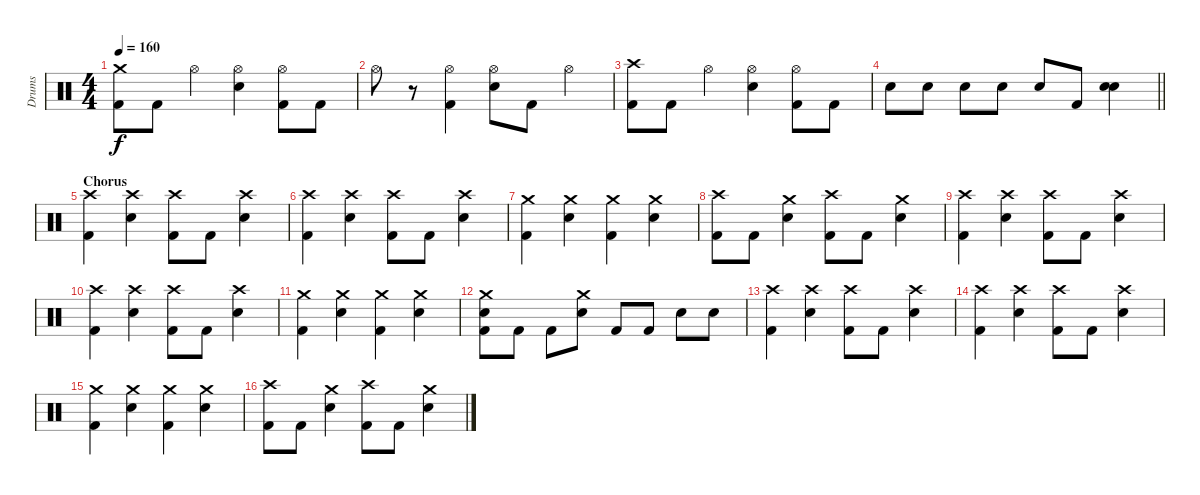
\track ("Drums " "Drums ") {instrument percussion}
\staff {score}
\articulation defaults
\ts (4 4)
\tempo 160
\clef neutral
\ks c
("Crash medium (hit)" "Kick (hit) 2").8{dy f} "Kick (hit) 2".8 "Hi-Hat (open)".4 ("Hi-Hat (open)" "Snare (hit) 2").4 ("Hi-Hat (open)" "Kick (hit) 2").8 "Kick (hit) 2".8 |
"Hi-Hat (open)".8 r.8 ("Hi-Hat (open)" "Kick (hit) 2").4 ("Hi-Hat (open)" "Snare (hit) 2").8 "Kick (hit) 2".8 "Hi-Hat (open)".4 |
("Crash high (hit)" "Kick (hit) 2").8 "Kick (hit) 2".8 "Hi-Hat (open)".4 ("Hi-Hat (open)" "Snare (hit) 2").4 ("Hi-Hat (open)" "Kick (hit) 2").8 "Kick (hit) 2".8 |
\barLineRight lightlight "Snare (hit) 2".8 "Snare (hit) 2".8 "Snare (hit) 2".8 "Snare (hit) 2".8 "Snare (hit) 2".8 "Kick (hit) 2".8
("Snare (hit) 2" "Snare (hit) 2").4 |
\section ("" "Chorus")
("Crash high (hit)" "Kick (hit) 2").4 ("Crash high (hit)" "Snare (hit) 2").4 ("Crash high (hit)" "Kick (hit) 2").8 "Kick (hit) 2".8 ("Crash high (hit)" "Snare (hit) 2").4 |
("Crash high (hit)" "Kick (hit) 2").4 ("Crash high (hit)" "Snare (hit) 2").4 ("Crash high (hit)" "Kick (hit) 2").8 "Kick (hit) 2".8 ("Crash high (hit)" "Snare (hit) 2").4 |
("Crash medium (hit)" "Kick (hit) 2").4 ("Crash medium (hit)" "Snare (hit) 2").4 ("Crash medium (hit)" "Kick (hit) 2").4 ("Crash medium (hit)" "Snare (hit) 2").4 |
("Crash high (hit)" "Kick (hit) 2").8 "Kick (hit) 2".8 ("Crash medium (hit)" "Snare (hit) 2").4 ("Crash high (hit)" "Kick (hit) 2").8 "Kick (hit) 2".8 ("Crash medium (hit)" "Snare (hit) 2").4 |
("Crash high (hit)" "Kick (hit) 2").4 ("Crash high (hit)" "Snare (hit) 2").4 ("Crash high (hit)" "Kick (hit) 2").8 "Kick (hit) 2".8 ("Crash high (hit)" "Snare (hit) 2").4 |
("Crash high (hit)" "Kick (hit) 2").4 ("Crash high (hit)" "Snare (hit) 2").4 ("Crash high (hit)" "Kick (hit) 2").8 "Kick (hit) 2".8 ("Crash high (hit)" "Snare (hit) 2").4 |
("Crash medium (hit)" "Kick (hit) 2").4 ("Crash medium (hit)" "Snare (hit) 2").4 ("Crash medium (hit)" "Kick (hit) 2").4 ("Crash medium (hit)" "Snare (hit) 2").4 |
("Crash medium (hit)" "Snare (hit) 2" "Kick (hit) 2").8 "Kick (hit) 2".8 "Kick (hit) 2".8 ("Crash medium (hit)" "Snare (hit) 2").8 "Kick (hit) 2".8 "Kick (hit) 2".8 "Snare (hit) 2".8 "Snare (hit) 2".8 |
("Crash high (hit)" "Kick (hit) 2").4 ("Crash high (hit)" "Snare (hit) 2").4 ("Crash high (hit)" "Kick (hit) 2").8 "Kick (hit) 2".8 ("Crash high (hit)" "Snare (hit) 2").4 |
("Crash high (hit)" "Kick (hit) 2").4 ("Crash high (hit)" "Snare (hit) 2").4 ("Crash high (hit)" "Kick (hit) 2").8 "Kick (hit) 2".8 ("Crash high (hit)" "Snare (hit) 2").4 |
("Crash medium (hit)" "Kick (hit) 2").4 ("Crash medium (hit)" "Snare (hit) 2").4 ("Crash medium (hit)" "Kick (hit) 2").4 ("Crash medium (hit)" "Snare (hit) 2").4 |
("Crash high (hit)" "Kick (hit) 2").8 "Kick (hit) 2".8 ("Crash medium (hit)" "Snare (hit) 2").4 ("Crash high (hit)" "Kick (hit) 2").8 "Kick (hit) 2".8 ("Crash medium (hit)" "Snare (hit) 2").4
